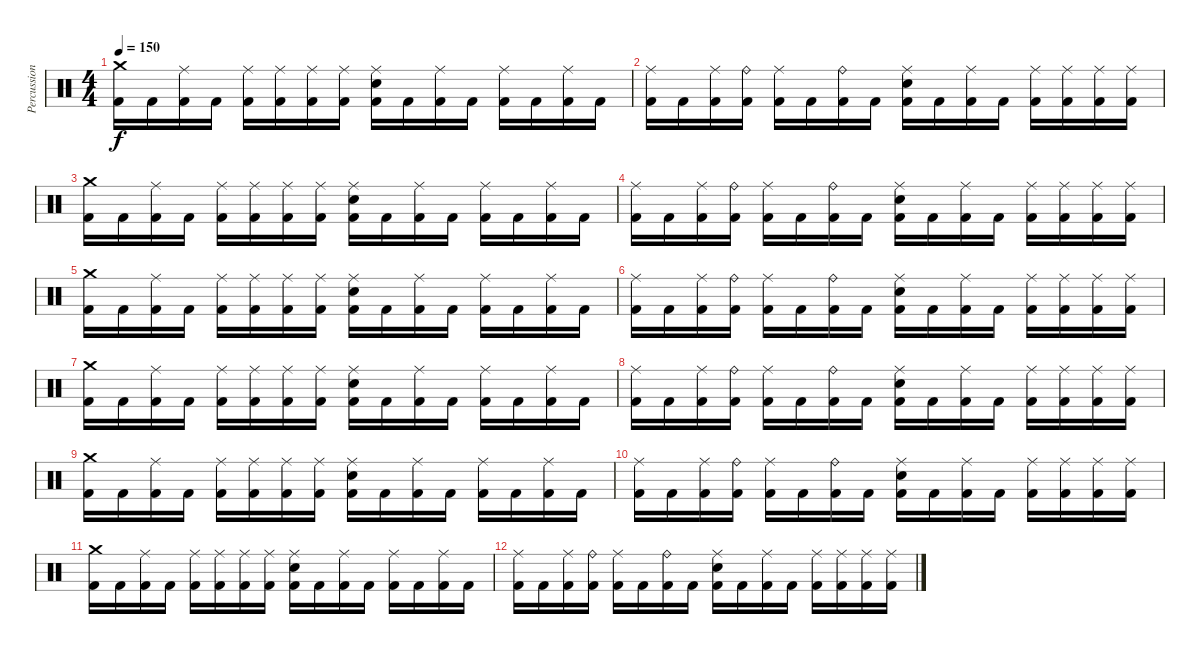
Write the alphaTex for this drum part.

\track ("Percussion" "Percussion") {instrument percussion}
\staff {score}
\articulation defaults
\ts (4 4)
\tempo 150
\clef neutral
\ks c
("Crash medium (hit)" "Kick (hit) 2").16{dy f volume 11} "Kick (hit) 2".16 ("Ride (middle)" "Kick (hit) 2").16 "Kick (hit) 2".16 ("Ride (middle)" "Kick (hit) 2").16 ("Ride (middle)" "Kick (hit) 2").16 ("Ride (middle)" "Kick (hit) 2").16 ("Ride (middle)" "Kick (hit) 2").16 ("Ride (middle)" "Snare (hit) 2" "Kick (hit) 2").16 "Kick (hit) 2".16 ("Ride (middle)" "Kick (hit) 2").16 "Kick (hit) 2".16 ("Ride (middle)" "Kick (hit) 2").16 "Kick (hit) 2".16 ("Ride (middle)" "Kick (hit) 2").16 "Kick (hit) 2".16 |
("Ride (middle)" "Kick (hit) 2").16 "Kick (hit) 2".16 ("Ride (middle)" "Kick (hit) 2").16 ("Ride (bell)" "Kick (hit) 2").16 ("Ride (middle)" "Kick (hit) 2").16 "Kick (hit) 2".16 ("Ride (bell)" "Kick (hit) 2").16 "Kick (hit) 2".16 ("Ride (middle)" "Snare (hit) 2" "Kick (hit) 2").16 "Kick (hit) 2".16 ("Ride (middle)" "Kick (hit) 2").16 "Kick (hit) 2".16 ("Ride (middle)" "Kick (hit) 2").16 ("Ride (middle)" "Kick (hit) 2").16 ("Ride (middle)" "Kick (hit) 2").16 ("Ride (middle)" "Kick (hit) 2").16 |
("Crash medium (hit)" "Kick (hit) 2").16 "Kick (hit) 2".16 ("Ride (middle)" "Kick (hit) 2").16 "Kick (hit) 2".16 ("Ride (middle)" "Kick (hit) 2").16 ("Ride (middle)" "Kick (hit) 2").16 ("Ride (middle)" "Kick (hit) 2").16 ("Ride (middle)" "Kick (hit) 2").16 ("Ride (middle)" "Snare (hit) 2" "Kick (hit) 2").16 "Kick (hit) 2".16 ("Ride (middle)" "Kick (hit) 2").16 "Kick (hit) 2".16 ("Ride (middle)" "Kick (hit) 2").16 "Kick (hit) 2".16 ("Ride (middle)" "Kick (hit) 2").16 "Kick (hit) 2".16 |
("Ride (middle)" "Kick (hit) 2").16 "Kick (hit) 2".16 ("Ride (middle)" "Kick (hit) 2").16 ("Ride (bell)" "Kick (hit) 2").16 ("Ride (middle)" "Kick (hit) 2").16 "Kick (hit) 2".16 ("Ride (bell)" "Kick (hit) 2").16 "Kick (hit) 2".16 ("Ride (middle)" "Snare (hit) 2" "Kick (hit) 2").16 "Kick (hit) 2".16 ("Ride (middle)" "Kick (hit) 2").16 "Kick (hit) 2".16 ("Ride (middle)" "Kick (hit) 2").16 ("Ride (middle)" "Kick (hit) 2").16 ("Ride (middle)" "Kick (hit) 2").16 ("Ride (middle)" "Kick (hit) 2").16 |
("Crash medium (hit)" "Kick (hit) 2").16{volume 6} "Kick (hit) 2".16 ("Ride (middle)" "Kick (hit) 2").16 "Kick (hit) 2".16 ("Ride (middle)" "Kick (hit) 2").16 ("Ride (middle)" "Kick (hit) 2").16 ("Ride (middle)" "Kick (hit) 2").16 ("Ride (middle)" "Kick (hit) 2").16 ("Ride (middle)" "Snare (hit) 2" "Kick (hit) 2").16 "Kick (hit) 2".16 ("Ride (middle)" "Kick (hit) 2").16 "Kick (hit) 2".16 ("Ride (middle)" "Kick (hit) 2").16 "Kick (hit) 2".16 ("Ride (middle)" "Kick (hit) 2").16 "Kick (hit) 2".16 |
("Ride (middle)" "Kick (hit) 2").16 "Kick (hit) 2".16 ("Ride (middle)" "Kick (hit) 2").16 ("Ride (bell)" "Kick (hit) 2").16 ("Ride (middle)" "Kick (hit) 2").16 "Kick (hit) 2".16 ("Ride (bell)" "Kick (hit) 2").16 "Kick (hit) 2".16 ("Ride (middle)" "Snare (hit) 2" "Kick (hit) 2").16 "Kick (hit) 2".16 ("Ride (middle)" "Kick (hit) 2").16 "Kick (hit) 2".16 ("Ride (middle)" "Kick (hit) 2").16 ("Ride (middle)" "Kick (hit) 2").16 ("Ride (middle)" "Kick (hit) 2").16 ("Ride (middle)" "Kick (hit) 2").16 |
("Crash medium (hit)" "Kick (hit) 2").16 "Kick (hit) 2".16 ("Ride (middle)" "Kick (hit) 2").16 "Kick (hit) 2".16 ("Ride (middle)" "Kick (hit) 2").16 ("Ride (middle)" "Kick (hit) 2").16 ("Ride (middle)" "Kick (hit) 2").16 ("Ride (middle)" "Kick (hit) 2").16 ("Ride (middle)" "Snare (hit) 2" "Kick (hit) 2").16 "Kick (hit) 2".16 ("Ride (middle)" "Kick (hit) 2").16 "Kick (hit) 2".16 ("Ride (middle)" "Kick (hit) 2").16 "Kick (hit) 2".16 ("Ride (middle)" "Kick (hit) 2").16 "Kick (hit) 2".16 |
("Ride (middle)" "Kick (hit) 2").16 "Kick (hit) 2".16 ("Ride (middle)" "Kick (hit) 2").16 ("Ride (bell)" "Kick (hit) 2").16 ("Ride (middle)" "Kick (hit) 2").16 "Kick (hit) 2".16 ("Ride (bell)" "Kick (hit) 2").16 "Kick (hit) 2".16 ("Ride (middle)" "Snare (hit) 2" "Kick (hit) 2").16 "Kick (hit) 2".16 ("Ride (middle)" "Kick (hit) 2").16 "Kick (hit) 2".16 ("Ride (middle)" "Kick (hit) 2").16 ("Ride (middle)" "Kick (hit) 2").16 ("Ride (middle)" "Kick (hit) 2").16 ("Ride (middle)" "Kick (hit) 2").16 |
("Crash medium (hit)" "Kick (hit) 2").16{volume 0} "Kick (hit) 2".16 ("Ride (middle)" "Kick (hit) 2").16 "Kick (hit) 2".16 ("Ride (middle)" "Kick (hit) 2").16 ("Ride (middle)" "Kick (hit) 2").16 ("Ride (middle)" "Kick (hit) 2").16 ("Ride (middle)" "Kick (hit) 2").16 ("Ride (middle)" "Snare (hit) 2" "Kick (hit) 2").16 "Kick (hit) 2".16 ("Ride (middle)" "Kick (hit) 2").16 "Kick (hit) 2".16 ("Ride (middle)" "Kick (hit) 2").16 "Kick (hit) 2".16 ("Ride (middle)" "Kick (hit) 2").16 "Kick (hit) 2".16 |
("Ride (middle)" "Kick (hit) 2").16 "Kick (hit) 2".16 ("Ride (middle)" "Kick (hit) 2").16 ("Ride (bell)" "Kick (hit) 2").16 ("Ride (middle)" "Kick (hit) 2").16 "Kick (hit) 2".16 ("Ride (bell)" "Kick (hit) 2").16 "Kick (hit) 2".16 ("Ride (middle)" "Snare (hit) 2" "Kick (hit) 2").16 "Kick (hit) 2".16 ("Ride (middle)" "Kick (hit) 2").16 "Kick (hit) 2".16 ("Ride (middle)" "Kick (hit) 2").16 ("Ride (middle)" "Kick (hit) 2").16 ("Ride (middle)" "Kick (hit) 2").16 ("Ride (middle)" "Kick (hit) 2").16 |
("Crash medium (hit)" "Kick (hit) 2").16 "Kick (hit) 2".16 ("Ride (middle)" "Kick (hit) 2").16 "Kick (hit) 2".16 ("Ride (middle)" "Kick (hit) 2").16 ("Ride (middle)" "Kick (hit) 2").16 ("Ride (middle)" "Kick (hit) 2").16 ("Ride (middle)" "Kick (hit) 2").16 ("Ride (middle)" "Snare (hit) 2" "Kick (hit) 2").16 "Kick (hit) 2".16 ("Ride (middle)" "Kick (hit) 2").16 "Kick (hit) 2".16 ("Ride (middle)" "Kick (hit) 2").16 "Kick (hit) 2".16 ("Ride (middle)" "Kick (hit) 2").16 "Kick (hit) 2".16 |
("Ride (middle)" "Kick (hit) 2").16 "Kick (hit) 2".16 ("Ride (middle)" "Kick (hit) 2").16 ("Ride (bell)" "Kick (hit) 2").16 ("Ride (middle)" "Kick (hit) 2").16 "Kick (hit) 2".16 ("Ride (bell)" "Kick (hit) 2").16 "Kick (hit) 2".16 ("Ride (middle)" "Snare (hit) 2" "Kick (hit) 2").16 "Kick (hit) 2".16 ("Ride (middle)" "Kick (hit) 2").16 "Kick (hit) 2".16 ("Ride (middle)" "Kick (hit) 2").16 ("Ride (middle)" "Kick (hit) 2").16 ("Ride (middle)" "Kick (hit) 2").16 ("Ride (middle)" "Kick (hit) 2").16
